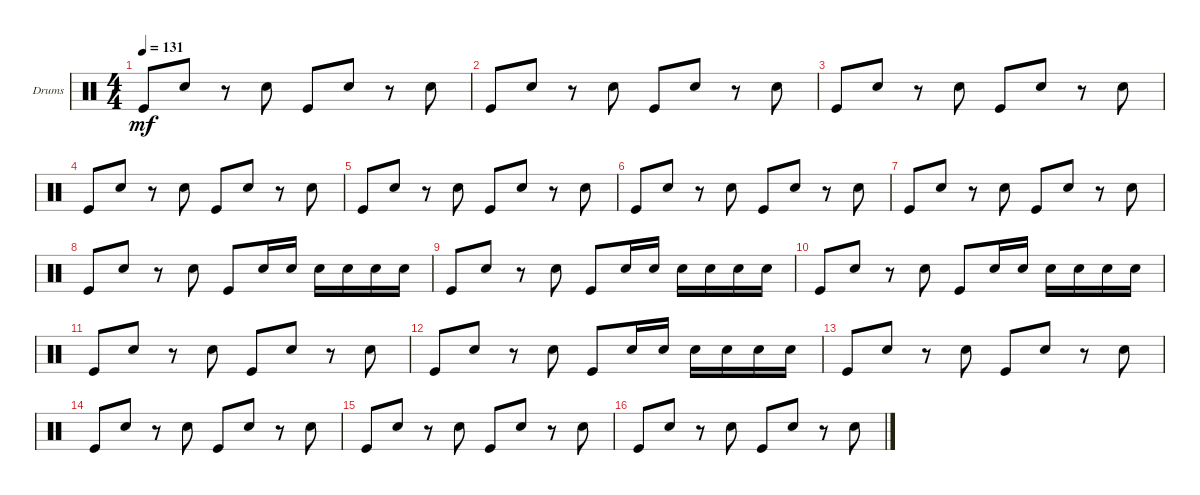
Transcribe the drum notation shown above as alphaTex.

\bracketExtendMode groupsimilarinstruments
\firstSystemTrackNameOrientation horizontal
\otherSystemsTrackNameOrientation horizontal
\track ("Drumkit" "Drums") {instrument percussion}
\staff {score}
\articulation defaults
\ts (4 4)
\tempo 131
\clef neutral
\scale
0.333333
\ks c "Kick (hit)".8{dy mf} "Snare (hit) 2".8
r.8 "Snare (hit) 2".8 "Kick (hit)".8 "Snare (hit) 2".8 r.8 "Snare (hit) 2".8 |
\scale
0.333333 "Kick (hit)".8 "Snare (hit) 2".8 r.8 "Snare (hit) 2".8 "Kick (hit)".8 "Snare (hit) 2".8 r.8 "Snare (hit) 2".8 |
\scale
0.333333 "Kick (hit)".8 "Snare (hit) 2".8 r.8 "Snare (hit) 2".8 "Kick (hit)".8 "Snare (hit) 2".8 r.8 "Snare (hit) 2".8 |
\scale
0.333333 "Kick (hit)".8 "Snare (hit) 2".8 r.8 "Snare (hit) 2".8 "Kick (hit)".8 "Snare (hit) 2".8 r.8 "Snare (hit) 2".8 |
\scale
0.333333 "Kick (hit)".8 "Snare (hit) 2".8 r.8 "Snare (hit) 2".8 "Kick (hit)".8 "Snare (hit) 2".8 r.8 "Snare (hit) 2".8 |
\scale
0.333333 "Kick (hit)".8 "Snare (hit) 2".8 r.8 "Snare (hit) 2".8 "Kick (hit)".8 "Snare (hit) 2".8 r.8 "Snare (hit) 2".8 |
\scale
0.333333 "Kick (hit)".8 "Snare (hit) 2".8 r.8 "Snare (hit) 2".8 "Kick (hit)".8 "Snare (hit) 2".8 r.8 "Snare (hit) 2".8 |
\scale
0.333333 "Kick (hit)".8 "Snare (hit) 2".8 r.8 "Snare (hit) 2".8 "Kick (hit)".8 "Snare (hit) 2".16 "Snare (hit) 2".16 "Snare (hit) 2".16 "Snare (hit) 2".16 "Snare (hit) 2".16 "Snare (hit) 2".16 |
\scale
0.333333 "Kick (hit)".8 "Snare (hit) 2".8 r.8 "Snare (hit) 2".8 "Kick (hit)".8 "Snare (hit) 2".16 "Snare (hit) 2".16 "Snare (hit) 2".16 "Snare (hit) 2".16 "Snare (hit) 2".16 "Snare (hit) 2".16 |
\scale
0.333333 "Kick (hit)".8 "Snare (hit) 2".8 r.8 "Snare (hit) 2".8 "Kick (hit)".8 "Snare (hit) 2".16 "Snare (hit) 2".16 "Snare (hit) 2".16 "Snare (hit) 2".16 "Snare (hit) 2".16 "Snare (hit) 2".16 |
\scale
0.333333 "Kick (hit)".8 "Snare (hit) 2".8 r.8 "Snare (hit) 2".8 "Kick (hit)".8 "Snare (hit) 2".8 r.8 "Snare (hit) 2".8 |
\scale
0.333333 "Kick (hit)".8 "Snare (hit) 2".8 r.8 "Snare (hit) 2".8 "Kick (hit)".8 "Snare (hit) 2".16 "Snare (hit) 2".16 "Snare (hit) 2".16 "Snare (hit) 2".16 "Snare (hit) 2".16 "Snare (hit) 2".16 |
\scale
0.333333 "Kick (hit)".8 "Snare (hit) 2".8 r.8 "Snare (hit) 2".8 "Kick (hit)".8 "Snare (hit) 2".8 r.8 "Snare (hit) 2".8 |
\scale
0.333333 "Kick (hit)".8 "Snare (hit) 2".8 r.8 "Snare (hit) 2".8 "Kick (hit)".8 "Snare (hit) 2".8 r.8 "Snare (hit) 2".8 |
\scale
0.333333 "Kick (hit)".8 "Snare (hit) 2".8 r.8 "Snare (hit) 2".8 "Kick (hit)".8 "Snare (hit) 2".8 r.8 "Snare (hit) 2".8 |
\scale
0.333333 "Kick (hit)".8 "Snare (hit) 2".8 r.8 "Snare (hit) 2".8 "Kick (hit)".8 "Snare (hit) 2".8 r.8 "Snare (hit) 2".8
